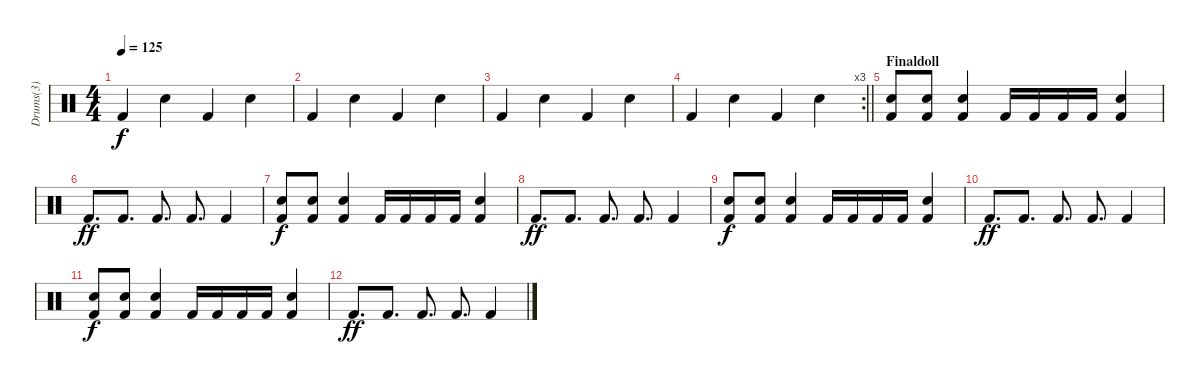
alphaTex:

\track ("Drums(3)" "Drums(3)") {instrument percussion}
\staff {score}
\articulation defaults
\ts (4 4)
\tempo 125
\clef neutral
\ks c "Kick (hit) 2".4{dy f} "Electric Snare (hit)".4 "Kick (hit) 2".4 "Electric Snare (hit)".4
|
"Kick (hit) 2".4 "Electric Snare (hit)".4 "Kick (hit) 2".4 "Electric Snare (hit)".4 |
"Kick (hit) 2".4 "Electric Snare (hit)".4 "Kick (hit) 2".4 "Electric Snare (hit)".4 |
\rc 3
\barLineRight lightlight "Kick (hit) 2".4 "Electric Snare (hit)".4 "Kick (hit) 2".4 "Electric Snare (hit)".4
|
\section ("" "Finaldoll")
("Snare (hit) 2" "Kick (hit) 2").8 ("Snare (hit) 2" "Kick (hit) 2").8 ("Snare (hit) 2" "Kick (hit) 2").4 "Kick (hit) 2".16 "Kick (hit) 2".16 "Kick (hit) 2".16 "Kick (hit) 2".16 ("Snare (hit) 2" "Kick (hit) 2").4 |
"Kick (hit) 2".8{d dy ff} "Kick (hit) 2".8{d} "Kick (hit) 2".8{d} "Kick (hit) 2".8{d} "Kick (hit) 2".4 |
("Snare (hit) 2" "Kick (hit) 2").8{dy f} ("Snare (hit) 2" "Kick (hit) 2").8 ("Snare (hit) 2" "Kick (hit) 2").4 "Kick (hit) 2".16 "Kick (hit) 2".16 "Kick (hit) 2".16 "Kick (hit) 2".16 ("Snare (hit) 2" "Kick (hit) 2").4 |
"Kick (hit) 2".8{d dy ff} "Kick (hit) 2".8{d} "Kick (hit) 2".8{d} "Kick (hit) 2".8{d} "Kick (hit) 2".4 |
("Snare (hit) 2" "Kick (hit) 2").8{dy f} ("Snare (hit) 2" "Kick (hit) 2").8 ("Snare (hit) 2" "Kick (hit) 2").4 "Kick (hit) 2".16 "Kick (hit) 2".16 "Kick (hit) 2".16 "Kick (hit) 2".16 ("Snare (hit) 2" "Kick (hit) 2").4 |
"Kick (hit) 2".8{d dy ff} "Kick (hit) 2".8{d} "Kick (hit) 2".8{d} "Kick (hit) 2".8{d} "Kick (hit) 2".4 |
("Snare (hit) 2" "Kick (hit) 2").8{dy f} ("Snare (hit) 2" "Kick (hit) 2").8 ("Snare (hit) 2" "Kick (hit) 2").4 "Kick (hit) 2".16 "Kick (hit) 2".16 "Kick (hit) 2".16 "Kick (hit) 2".16 ("Snare (hit) 2" "Kick (hit) 2").4 |
"Kick (hit) 2".8{d dy ff} "Kick (hit) 2".8{d} "Kick (hit) 2".8{d} "Kick (hit) 2".8{d} "Kick (hit) 2".4
